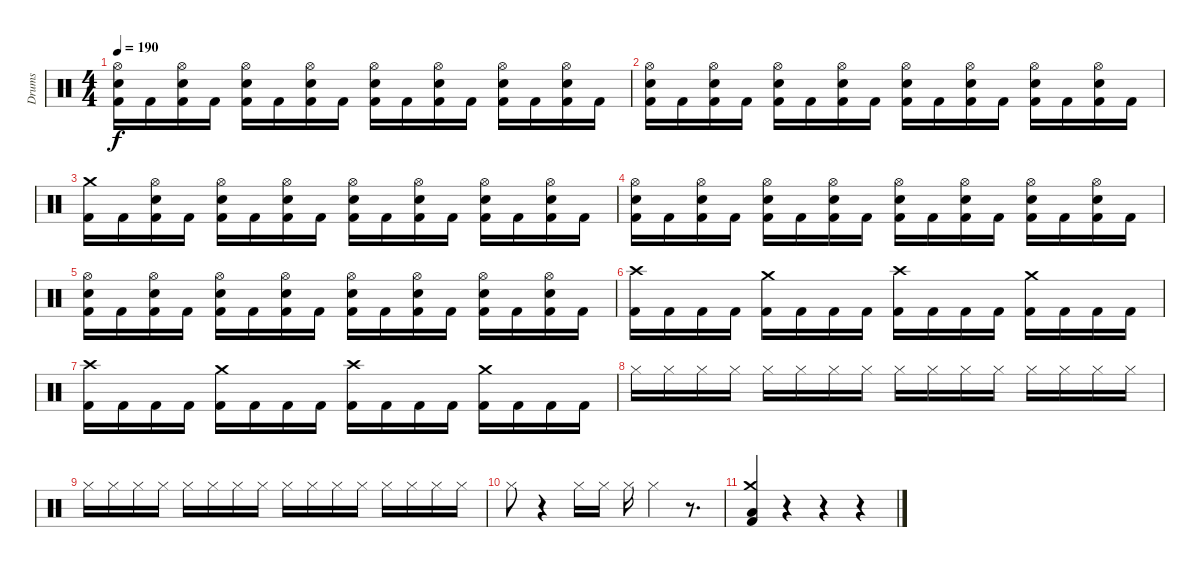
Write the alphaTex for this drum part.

\track ("Drums" "Drums") {instrument percussion}
\staff {score}
\articulation defaults
\ts (4 4)
\tempo 190
\clef neutral
\ks c
("Kick (hit) 2" "Electric Snare (hit)" "Hi-Hat (open)").16{dy f} "Kick (hit) 2".16 ("Kick (hit) 2" "Electric Snare (hit)" "Hi-Hat (open)").16 "Kick (hit) 2".16 ("Kick (hit) 2" "Electric Snare (hit)" "Hi-Hat (open)").16 "Kick (hit) 2".16 ("Kick (hit) 2" "Electric Snare (hit)" "Hi-Hat (open)").16 "Kick (hit) 2".16 ("Kick (hit) 2" "Electric Snare (hit)" "Hi-Hat (open)").16 "Kick (hit) 2".16 ("Kick (hit) 2" "Electric Snare (hit)" "Hi-Hat (open)").16 "Kick (hit) 2".16 ("Kick (hit) 2" "Electric Snare (hit)" "Hi-Hat (open)").16 "Kick (hit) 2".16 ("Kick (hit) 2" "Electric Snare (hit)" "Hi-Hat (open)").16 "Kick (hit) 2".16 |
("Kick (hit) 2" "Electric Snare (hit)" "Hi-Hat (open)").16 "Kick (hit) 2".16 ("Kick (hit) 2" "Electric Snare (hit)" "Hi-Hat (open)").16 "Kick (hit) 2".16 ("Kick (hit) 2" "Electric Snare (hit)" "Hi-Hat (open)").16 "Kick (hit) 2".16 ("Kick (hit) 2" "Electric Snare (hit)" "Hi-Hat (open)").16 "Kick (hit) 2".16 ("Kick (hit) 2" "Electric Snare (hit)" "Hi-Hat (open)").16 "Kick (hit) 2".16 ("Kick (hit) 2" "Electric Snare (hit)" "Hi-Hat (open)").16 "Kick (hit) 2".16 ("Kick (hit) 2" "Electric Snare (hit)" "Hi-Hat (open)").16 "Kick (hit) 2".16 ("Kick (hit) 2" "Electric Snare (hit)" "Hi-Hat (open)").16 "Kick (hit) 2".16 |
("Kick (hit) 2" "Crash medium (hit)").16 "Kick (hit) 2".16 ("Kick (hit) 2" "Electric Snare (hit)" "Hi-Hat (open)").16 "Kick (hit) 2".16 ("Kick (hit) 2" "Electric Snare (hit)" "Hi-Hat (open)").16 "Kick (hit) 2".16 ("Kick (hit) 2" "Electric Snare (hit)" "Hi-Hat (open)").16 "Kick (hit) 2".16 ("Kick (hit) 2" "Electric Snare (hit)" "Hi-Hat (open)").16 "Kick (hit) 2".16 ("Kick (hit) 2" "Electric Snare (hit)" "Hi-Hat (open)").16 "Kick (hit) 2".16 ("Kick (hit) 2" "Electric Snare (hit)" "Hi-Hat (open)").16 "Kick (hit) 2".16 ("Kick (hit) 2" "Electric Snare (hit)" "Hi-Hat (open)").16 "Kick (hit) 2".16 |
("Kick (hit) 2" "Electric Snare (hit)" "Hi-Hat (open)").16 "Kick (hit) 2".16 ("Kick (hit) 2" "Electric Snare (hit)" "Hi-Hat (open)").16 "Kick (hit) 2".16 ("Kick (hit) 2" "Electric Snare (hit)" "Hi-Hat (open)").16 "Kick (hit) 2".16 ("Kick (hit) 2" "Electric Snare (hit)" "Hi-Hat (open)").16 "Kick (hit) 2".16 ("Kick (hit) 2" "Electric Snare (hit)" "Hi-Hat (open)").16 "Kick (hit) 2".16 ("Kick (hit) 2" "Electric Snare (hit)" "Hi-Hat (open)").16 "Kick (hit) 2".16 ("Kick (hit) 2" "Electric Snare (hit)" "Hi-Hat (open)").16 "Kick (hit) 2".16 ("Kick (hit) 2" "Electric Snare (hit)" "Hi-Hat (open)").16 "Kick (hit) 2".16 |
("Kick (hit) 2" "Electric Snare (hit)" "Hi-Hat (open)").16 "Kick (hit) 2".16 ("Kick (hit) 2" "Electric Snare (hit)" "Hi-Hat (open)").16 "Kick (hit) 2".16 ("Kick (hit) 2" "Electric Snare (hit)" "Hi-Hat (open)").16 "Kick (hit) 2".16 ("Kick (hit) 2" "Electric Snare (hit)" "Hi-Hat (open)").16 "Kick (hit) 2".16 ("Kick (hit) 2" "Electric Snare (hit)" "Hi-Hat (open)").16 "Kick (hit) 2".16 ("Kick (hit) 2" "Electric Snare (hit)" "Hi-Hat (open)").16 "Kick (hit) 2".16 ("Kick (hit) 2" "Electric Snare (hit)" "Hi-Hat (open)").16 "Kick (hit) 2".16 ("Kick (hit) 2" "Electric Snare (hit)" "Hi-Hat (open)").16 "Kick (hit) 2".16 |
("Kick (hit) 2" "Crash high (hit)").16 "Kick (hit) 2".16 "Kick (hit) 2".16 "Kick (hit) 2".16 ("Kick (hit) 2" "Crash medium (hit)").16 "Kick (hit) 2".16 "Kick (hit) 2".16 "Kick (hit) 2".16 ("Kick (hit) 2" "Crash high (hit)").16 "Kick (hit) 2".16 "Kick (hit) 2".16 "Kick (hit) 2".16 ("Kick (hit) 2" "Crash medium (hit)").16 "Kick (hit) 2".16 "Kick (hit) 2".16 "Kick (hit) 2".16 |
("Kick (hit) 2" "Crash high (hit)").16 "Kick (hit) 2".16 "Kick (hit) 2".16 "Kick (hit) 2".16 ("Kick (hit) 2" "Crash medium (hit)").16 "Kick (hit) 2".16 "Kick (hit) 2".16 "Kick (hit) 2".16 ("Kick (hit) 2" "Crash high (hit)").16 "Kick (hit) 2".16 "Kick (hit) 2".16 "Kick (hit) 2".16 ("Kick (hit) 2" "Crash medium (hit)").16 "Kick (hit) 2".16 "Kick (hit) 2".16 "Kick (hit) 2".16 |
"Hi-Hat (closed)".16 "Hi-Hat (closed)".16 "Hi-Hat (closed)".16 "Hi-Hat (closed)".16 "Hi-Hat (closed)".16 "Hi-Hat (closed)".16 "Hi-Hat (closed)".16 "Hi-Hat (closed)".16 "Hi-Hat (closed)".16 "Hi-Hat (closed)".16 "Hi-Hat (closed)".16 "Hi-Hat (closed)".16 "Hi-Hat (closed)".16 "Hi-Hat (closed)".16 "Hi-Hat (closed)".16 "Hi-Hat (closed)".16 |
"Hi-Hat (closed)".16 "Hi-Hat (closed)".16 "Hi-Hat (closed)".16 "Hi-Hat (closed)".16 "Hi-Hat (closed)".16 "Hi-Hat (closed)".16 "Hi-Hat (closed)".16 "Hi-Hat (closed)".16 "Hi-Hat (closed)".16 "Hi-Hat (closed)".16 "Hi-Hat (closed)".16 "Hi-Hat (closed)".16 "Hi-Hat (closed)".16 "Hi-Hat (closed)".16 "Hi-Hat (closed)".16 "Hi-Hat (closed)".16 |
"Hi-Hat (closed)".8 r.4 "Hi-Hat (closed)".16 "Hi-Hat (closed)".16 "Hi-Hat (closed)".16 "Hi-Hat (closed)".4 r.8{d} |
("Kick (hit) 2" "Low Tom (hit)" "Crash medium (hit)").4 r.4 r.4 r.4
